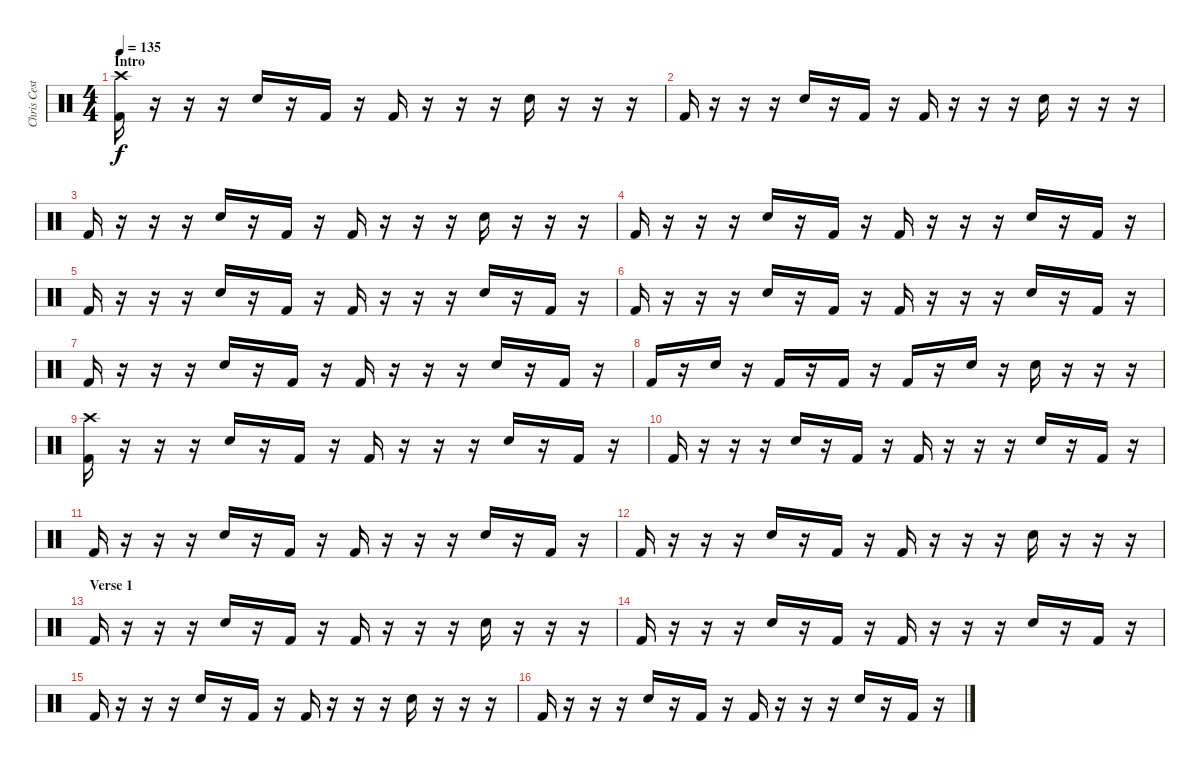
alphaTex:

\track ("Chris Cester - Drums" "Chris Cest") {instrument percussion}
\staff {score}
\articulation defaults
\ts (4 4)
\section ("" "Intro")
\tempo 135
\clef neutral
\ks c
("Crash high (hit)" "Kick (hit) 2").16{dy f} r.16 r.16 r.16 "Electric Snare (hit)".16 r.16 "Kick (hit) 2".16 r.16 "Kick (hit) 2".16 r.16 r.16 r.16 "Electric Snare (hit)".16 r.16 r.16 r.16 |
"Kick (hit) 2".16 r.16 r.16 r.16 "Electric Snare (hit)".16 r.16 "Kick (hit) 2".16 r.16 "Kick (hit) 2".16 r.16 r.16 r.16 "Electric Snare (hit)".16 r.16 r.16 r.16 |
"Kick (hit) 2".16 r.16 r.16 r.16 "Electric Snare (hit)".16 r.16 "Kick (hit) 2".16 r.16 "Kick (hit) 2".16 r.16 r.16 r.16 "Electric Snare (hit)".16 r.16 r.16 r.16 |
"Kick (hit) 2".16 r.16 r.16 r.16 "Electric Snare (hit)".16 r.16 "Kick (hit) 2".16 r.16 "Kick (hit) 2".16 r.16 r.16 r.16 "Electric Snare (hit)".16 r.16 "Kick (hit) 2".16 r.16 |
"Kick (hit) 2".16 r.16 r.16 r.16 "Electric Snare (hit)".16 r.16 "Kick (hit) 2".16 r.16 "Kick (hit) 2".16 r.16 r.16 r.16 "Electric Snare (hit)".16 r.16 "Kick (hit) 2".16 r.16 |
"Kick (hit) 2".16 r.16 r.16 r.16 "Electric Snare (hit)".16 r.16 "Kick (hit) 2".16 r.16 "Kick (hit) 2".16 r.16 r.16 r.16 "Electric Snare (hit)".16 r.16 "Kick (hit) 2".16 r.16 |
"Kick (hit) 2".16 r.16 r.16 r.16 "Electric Snare (hit)".16 r.16 "Kick (hit) 2".16 r.16 "Kick (hit) 2".16 r.16 r.16 r.16 "Electric Snare (hit)".16 r.16 "Kick (hit) 2".16 r.16 |
"Kick (hit) 2".16 r.16 "Electric Snare (hit)".16 r.16 "Kick (hit) 2".16 r.16 "Kick (hit) 2".16 r.16 "Kick (hit) 2".16 r.16 "Electric Snare (hit)".16 r.16 "Electric Snare (hit)".16 r.16 r.16 r.16 |
("Crash high (hit)" "Kick (hit) 2").16 r.16 r.16 r.16 "Electric Snare (hit)".16 r.16 "Kick (hit) 2".16 r.16 "Kick (hit) 2".16 r.16 r.16 r.16 "Electric Snare (hit)".16 r.16 "Kick (hit) 2".16 r.16 |
"Kick (hit) 2".16 r.16 r.16 r.16 "Electric Snare (hit)".16 r.16 "Kick (hit) 2".16 r.16 "Kick (hit) 2".16 r.16 r.16 r.16 "Electric Snare (hit)".16 r.16 "Kick (hit) 2".16 r.16 |
"Kick (hit) 2".16 r.16 r.16 r.16 "Electric Snare (hit)".16 r.16 "Kick (hit) 2".16 r.16 "Kick (hit) 2".16 r.16 r.16 r.16 "Electric Snare (hit)".16 r.16 "Kick (hit) 2".16 r.16 |
"Kick (hit) 2".16 r.16 r.16 r.16 "Electric Snare (hit)".16 r.16 "Kick (hit) 2".16 r.16 "Kick (hit) 2".16 r.16 r.16 r.16 "Electric Snare (hit)".16 r.16 r.16 r.16 |
\section ("" "Verse 1")
"Kick (hit) 2".16 r.16 r.16 r.16 "Electric Snare (hit)".16 r.16 "Kick (hit) 2".16 r.16 "Kick (hit) 2".16 r.16 r.16 r.16 "Electric Snare (hit)".16 r.16 r.16 r.16 |
"Kick (hit) 2".16 r.16 r.16 r.16 "Electric Snare (hit)".16 r.16 "Kick (hit) 2".16 r.16 "Kick (hit) 2".16 r.16 r.16 r.16 "Electric Snare (hit)".16 r.16 "Kick (hit) 2".16 r.16 |
"Kick (hit) 2".16 r.16 r.16 r.16 "Electric Snare (hit)".16 r.16 "Kick (hit) 2".16 r.16 "Kick (hit) 2".16 r.16 r.16 r.16 "Electric Snare (hit)".16 r.16 r.16 r.16 |
"Kick (hit) 2".16 r.16 r.16 r.16 "Electric Snare (hit)".16 r.16 "Kick (hit) 2".16 r.16 "Kick (hit) 2".16 r.16 r.16 r.16 "Electric Snare (hit)".16 r.16 "Kick (hit) 2".16 r.16
